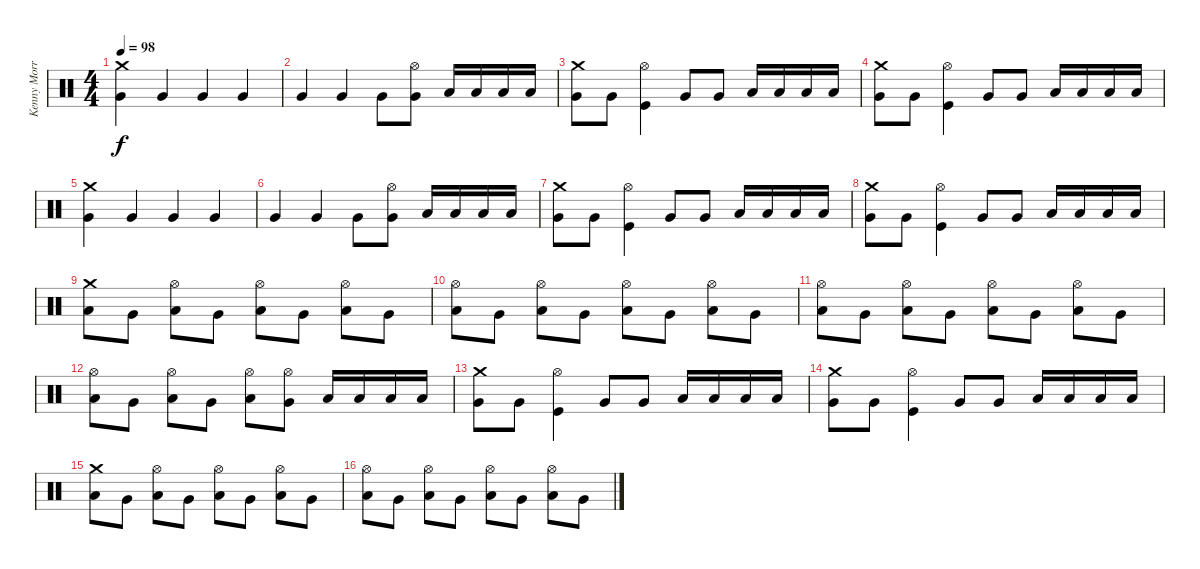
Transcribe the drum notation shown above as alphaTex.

\track ("Kenny Morris" "Kenny Morr") {instrument percussion}
\staff {score}
\articulation defaults
\ts (4 4)
\tempo 98
\clef neutral
\ks c
("Crash medium (hit)" "Very Low Tom (hit)").4{dy f} "Very Low Tom (hit)".4 "Very Low Tom (hit)".4 "Very Low Tom (hit)".4 |
"Very Low Tom (hit)".4 "Very Low Tom (hit)".4 "Very Low Tom (hit)".8 ("Hi-Hat (open)" "Very Low Tom (hit)").8 "Low Tom (hit)".16 "Low Tom (hit)".16 "Low Tom (hit)".16 "Low Tom (hit)".16 |
("Crash medium (hit)" "Very Low Tom (hit)").8 "Very Low Tom (hit)".8 ("Hi-Hat (open)" "Kick (hit)").4 "Very Low Tom (hit)".8 "Very Low Tom (hit)".8 "Low Tom (hit)".16 "Low Tom (hit)".16 "Low Tom (hit)".16 "Low Tom (hit)".16 |
("Crash medium (hit)" "Very Low Tom (hit)").8 "Very Low Tom (hit)".8 ("Hi-Hat (open)" "Kick (hit)").4 "Very Low Tom (hit)".8 "Very Low Tom (hit)".8 "Low Tom (hit)".16 "Low Tom (hit)".16 "Low Tom (hit)".16 "Low Tom (hit)".16 |
("Crash medium (hit)" "Very Low Tom (hit)").4 "Very Low Tom (hit)".4 "Very Low Tom (hit)".4 "Very Low Tom (hit)".4 |
"Very Low Tom (hit)".4 "Very Low Tom (hit)".4 "Very Low Tom (hit)".8 ("Hi-Hat (open)" "Very Low Tom (hit)").8 "Low Tom (hit)".16 "Low Tom (hit)".16 "Low Tom (hit)".16 "Low Tom (hit)".16 |
("Crash medium (hit)" "Very Low Tom (hit)").8 "Very Low Tom (hit)".8 ("Hi-Hat (open)" "Kick (hit)").4 "Very Low Tom (hit)".8 "Very Low Tom (hit)".8 "Low Tom (hit)".16 "Low Tom (hit)".16 "Low Tom (hit)".16 "Low Tom (hit)".16 |
("Crash medium (hit)" "Very Low Tom (hit)").8 "Very Low Tom (hit)".8 ("Hi-Hat (open)" "Kick (hit)").4 "Very Low Tom (hit)".8 "Very Low Tom (hit)".8 "Low Tom (hit)".16 "Low Tom (hit)".16 "Low Tom (hit)".16 "Low Tom (hit)".16 |
("Crash medium (hit)" "Low Tom (hit)").8 "Very Low Tom (hit)".8 ("Hi-Hat (open)" "Low Tom (hit)").8 "Very Low Tom (hit)".8 ("Hi-Hat (open)" "Low Tom (hit)").8 "Very Low Tom (hit)".8 ("Hi-Hat (open)" "Low Tom (hit)").8 "Very Low Tom (hit)".8 |
("Hi-Hat (open)" "Low Tom (hit)").8 "Very Low Tom (hit)".8 ("Hi-Hat (open)" "Low Tom (hit)").8 "Very Low Tom (hit)".8 ("Hi-Hat (open)" "Low Tom (hit)").8 "Very Low Tom (hit)".8 ("Hi-Hat (open)" "Low Tom (hit)").8 "Very Low Tom (hit)".8 |
("Hi-Hat (open)" "Low Tom (hit)").8 "Very Low Tom (hit)".8 ("Hi-Hat (open)" "Low Tom (hit)").8 "Very Low Tom (hit)".8 ("Hi-Hat (open)" "Low Tom (hit)").8 "Very Low Tom (hit)".8 ("Hi-Hat (open)" "Low Tom (hit)").8 "Very Low Tom (hit)".8 |
("Hi-Hat (open)" "Low Tom (hit)").8 "Very Low Tom (hit)".8 ("Hi-Hat (open)" "Low Tom (hit)").8 "Very Low Tom (hit)".8 ("Hi-Hat (open)" "Low Tom (hit)").8 ("Hi-Hat (open)" "Very Low Tom (hit)").8 "Low Tom (hit)".16 "Low Tom (hit)".16 "Low Tom (hit)".16 "Low Tom (hit)".16 |
("Crash medium (hit)" "Very Low Tom (hit)").8 "Very Low Tom (hit)".8 ("Hi-Hat (open)" "Kick (hit)").4 "Very Low Tom (hit)".8 "Very Low Tom (hit)".8 "Low Tom (hit)".16 "Low Tom (hit)".16 "Low Tom (hit)".16 "Low Tom (hit)".16 |
("Crash medium (hit)" "Very Low Tom (hit)").8 "Very Low Tom (hit)".8 ("Hi-Hat (open)" "Kick (hit)").4 "Very Low Tom (hit)".8 "Very Low Tom (hit)".8 "Low Tom (hit)".16 "Low Tom (hit)".16 "Low Tom (hit)".16 "Low Tom (hit)".16 |
("Crash medium (hit)" "Low Tom (hit)").8 "Very Low Tom (hit)".8 ("Hi-Hat (open)" "Low Tom (hit)").8 "Very Low Tom (hit)".8 ("Hi-Hat (open)" "Low Tom (hit)").8 "Very Low Tom (hit)".8 ("Hi-Hat (open)" "Low Tom (hit)").8 "Very Low Tom (hit)".8 |
("Hi-Hat (open)" "Low Tom (hit)").8 "Very Low Tom (hit)".8 ("Hi-Hat (open)" "Low Tom (hit)").8 "Very Low Tom (hit)".8 ("Hi-Hat (open)" "Low Tom (hit)").8 "Very Low Tom (hit)".8 ("Hi-Hat (open)" "Low Tom (hit)").8 "Very Low Tom (hit)".8
